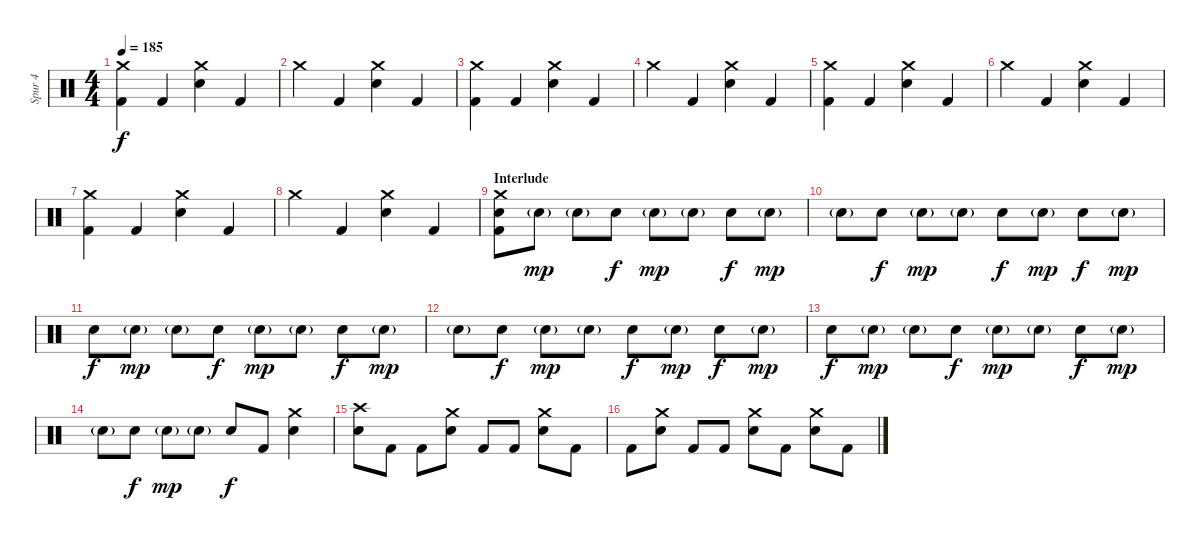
\track ("Spur 4" "Spur 4") {instrument percussion}
\staff {score}
\articulation defaults
\ts (4 4)
\tempo 185
\clef neutral
\ks c
("Crash medium (hit)" "Kick (hit) 2").4{dy f} "Kick (hit) 2".4 ("Crash medium (hit)" "Electric Snare (hit)").4 "Kick (hit) 2".4 |
"Crash medium (hit)".4 "Kick (hit) 2".4 ("Crash medium (hit)" "Electric Snare (hit)").4 "Kick (hit) 2".4 |
("Crash medium (hit)" "Kick (hit) 2").4 "Kick (hit) 2".4 ("Crash medium (hit)" "Electric Snare (hit)").4 "Kick (hit) 2".4 |
"Crash medium (hit)".4 "Kick (hit) 2".4 ("Crash medium (hit)" "Electric Snare (hit)").4 "Kick (hit) 2".4 |
("Crash medium (hit)" "Kick (hit) 2").4 "Kick (hit) 2".4 ("Crash medium (hit)" "Electric Snare (hit)").4 "Kick (hit) 2".4 |
"Crash medium (hit)".4 "Kick (hit) 2".4 ("Crash medium (hit)" "Electric Snare (hit)").4 "Kick (hit) 2".4 |
("Crash medium (hit)" "Kick (hit) 2").4 "Kick (hit) 2".4 ("Crash medium (hit)" "Electric Snare (hit)").4 "Kick (hit) 2".4 |
"Crash medium (hit)".4 "Kick (hit) 2".4 ("Crash medium (hit)" "Electric Snare (hit)").4 "Kick (hit) 2".4 |
\section ("" "Interlude")
("Crash medium (hit)" "Electric Snare (hit)" "Kick (hit) 2").8 "Electric Snare (hit)"{g}.8{dy mp} "Electric Snare (hit)"{g}.8 "Electric Snare (hit)".8{dy f} "Electric Snare (hit)"{g}.8{dy mp} "Electric Snare (hit)"{g}.8 "Electric Snare (hit)".8{dy f} "Electric Snare (hit)"{g}.8{dy mp} |
"Electric Snare (hit)"{g}.8 "Electric Snare (hit)".8{dy f} "Electric Snare (hit)"{g}.8{dy mp} "Electric Snare (hit)"{g}.8 "Electric Snare (hit)".8{dy f} "Electric Snare (hit)"{g}.8{dy mp} "Electric Snare (hit)".8{dy f} "Electric Snare (hit)"{g}.8{dy mp} |
"Electric Snare (hit)".8{dy f} "Electric Snare (hit)"{g}.8{dy mp} "Electric Snare (hit)"{g}.8 "Electric Snare (hit)".8{dy f} "Electric Snare (hit)"{g}.8{dy mp} "Electric Snare (hit)"{g}.8 "Electric Snare (hit)".8{dy f} "Electric Snare (hit)"{g}.8{dy mp} |
"Electric Snare (hit)"{g}.8 "Electric Snare (hit)".8{dy f} "Electric Snare (hit)"{g}.8{dy mp} "Electric Snare (hit)"{g}.8 "Electric Snare (hit)".8{dy f} "Electric Snare (hit)"{g}.8{dy mp} "Electric Snare (hit)".8{dy f} "Electric Snare (hit)"{g}.8{dy mp} |
"Electric Snare (hit)".8{dy f} "Electric Snare (hit)"{g}.8{dy mp} "Electric Snare (hit)"{g}.8 "Electric Snare (hit)".8{dy f} "Electric Snare (hit)"{g}.8{dy mp} "Electric Snare (hit)"{g}.8 "Electric Snare (hit)".8{dy f} "Electric Snare (hit)"{g}.8{dy mp} |
"Electric Snare (hit)"{g}.8 "Electric Snare (hit)".8{dy f} "Electric Snare (hit)"{g}.8{dy mp} "Electric Snare (hit)"{g}.8 "Electric Snare (hit)".8{dy f} "Kick (hit) 2".8 ("Crash medium (hit)" "Electric Snare (hit)").4 |
("Crash high (hit)" "Electric Snare (hit)").8 "Kick (hit) 2".8 "Kick (hit) 2".8 ("Crash medium (hit)" "Electric Snare (hit)").8 "Kick (hit) 2".8 "Kick (hit) 2".8 ("Crash medium (hit)" "Electric Snare (hit)").8 "Kick (hit) 2".8 |
"Kick (hit) 2".8 ("Crash medium (hit)" "Electric Snare (hit)").8 "Kick (hit) 2".8 "Kick (hit) 2".8 ("Crash medium (hit)" "Electric Snare (hit)").8 "Kick (hit) 2".8 ("Crash medium (hit)" "Electric Snare (hit)").8 "Kick (hit) 2".8
